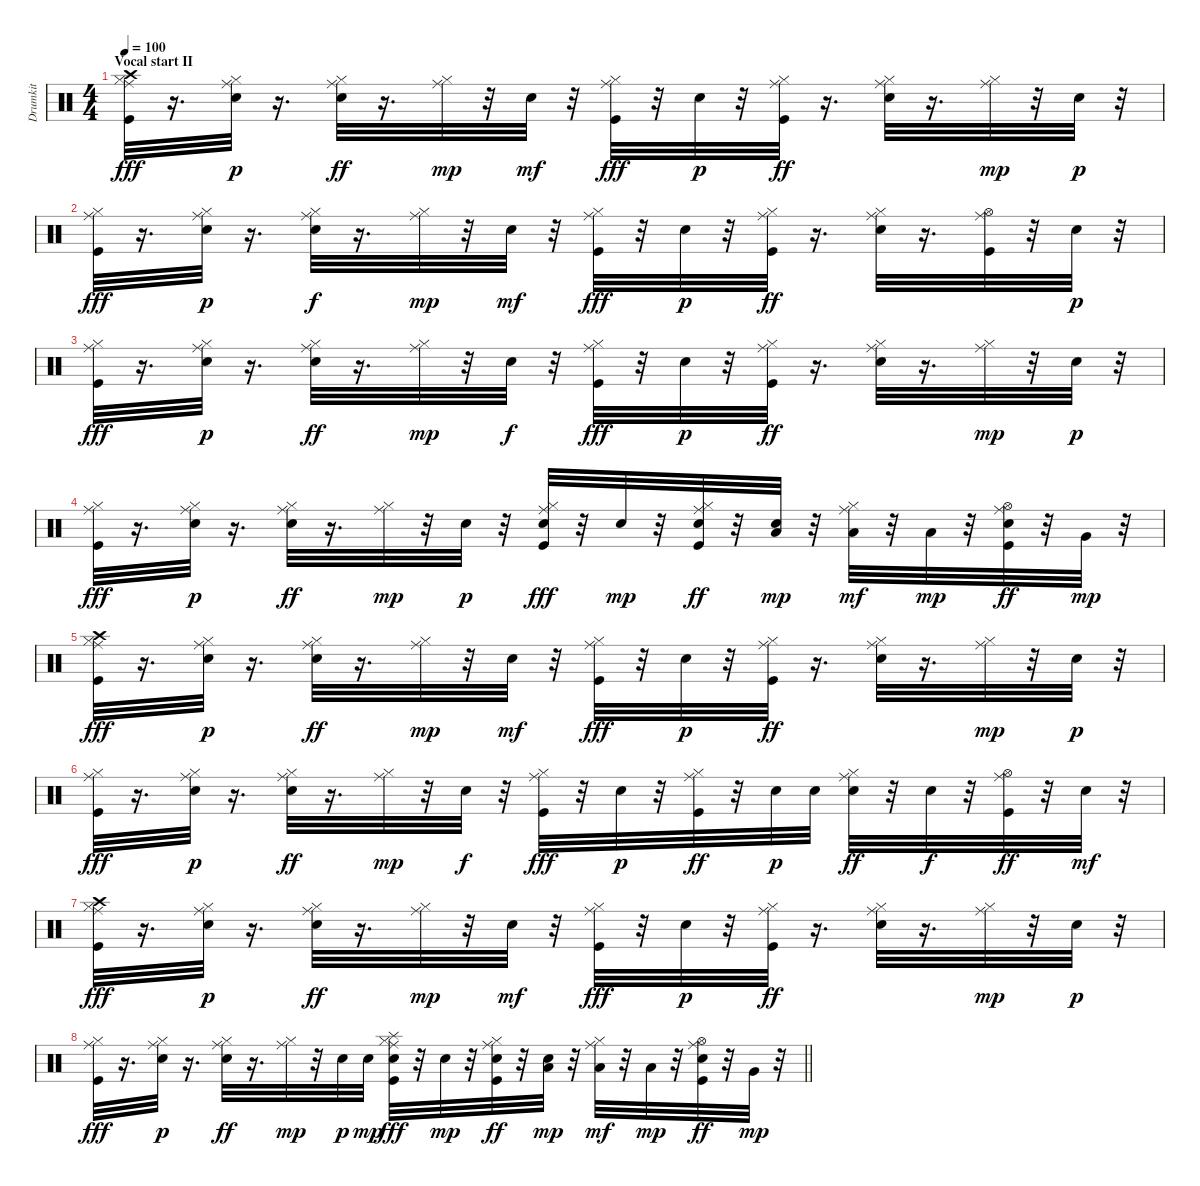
\track ("Drumkit" "Drumkit") {instrument percussion}
\staff {score}
\articulation defaults
\ts (4 4)
\section ("" "Vocal start II")
\tempo 100
\clef neutral
\ks c
("Kick (hit)" "Hi-Hat (closed)" "Crash high (hit)" "Ride (middle)").32{dy fff} r.16{d} ("Snare (hit) 2" "Hi-Hat (closed)" "Ride (middle)").32{dy p} r.16{d} ("Snare (hit) 2" "Hi-Hat (closed)" "Ride (middle)").32{dy ff} r.16{d} ("Hi-Hat (closed)" "Ride (middle)").32{dy mp} r.32 "Snare (hit) 2".32{dy mf} r.32 ("Kick (hit)" "Hi-Hat (closed)" "Ride (middle)").32{dy fff} r.32 "Snare (hit) 2".32{dy p} r.32 ("Kick (hit)" "Hi-Hat (closed)" "Ride (middle)").32{dy ff} r.16{d} ("Snare (hit) 2" "Hi-Hat (closed)" "Ride (middle)").32 r.16{d} ("Hi-Hat (closed)" "Ride (middle)").32{dy mp} r.32 "Snare (hit) 2".32{dy p} r.32 |
("Kick (hit)" "Hi-Hat (closed)" "Ride (middle)").32{dy fff} r.16{d} ("Snare (hit) 2" "Hi-Hat (closed)" "Ride (middle)").32{dy p} r.16{d} ("Snare (hit) 2" "Hi-Hat (closed)" "Ride (middle)").32{dy f} r.16{d} ("Hi-Hat (closed)" "Ride (middle)").32{dy mp} r.32 "Snare (hit) 2".32{dy mf} r.32 ("Kick (hit)" "Hi-Hat (closed)" "Ride (middle)").32{dy fff} r.32 "Snare (hit) 2".32{dy p} r.32 ("Kick (hit)" "Hi-Hat (closed)" "Ride (middle)").32{dy ff} r.16{d} ("Snare (hit) 2" "Hi-Hat (closed)" "Ride (middle)").32 r.16{d} ("Kick (hit)" "Hi-Hat (open)" "Ride (middle)").32 r.32 "Snare (hit) 2".32{dy p} r.32 |
("Kick (hit)" "Hi-Hat (closed)" "Ride (middle)").32{dy fff} r.16{d} ("Snare (hit) 2" "Hi-Hat (closed)" "Ride (middle)").32{dy p} r.16{d} ("Snare (hit) 2" "Hi-Hat (closed)" "Ride (middle)").32{dy ff} r.16{d} ("Hi-Hat (closed)" "Ride (middle)").32{dy mp} r.32 "Snare (hit) 2".32{dy f} r.32 ("Kick (hit)" "Hi-Hat (closed)" "Ride (middle)").32{dy fff} r.32 "Snare (hit) 2".32{dy p} r.32 ("Kick (hit)" "Hi-Hat (closed)" "Ride (middle)").32{dy ff} r.16{d} ("Snare (hit) 2" "Hi-Hat (closed)" "Ride (middle)").32 r.16{d} ("Hi-Hat (closed)" "Ride (middle)").32{dy mp} r.32 "Snare (hit) 2".32{dy p} r.32 |
("Kick (hit)" "Hi-Hat (closed)" "Ride (middle)").32{dy fff} r.16{d} ("Snare (hit) 2" "Hi-Hat (closed)" "Ride (middle)").32{dy p} r.16{d} ("Snare (hit) 2" "Hi-Hat (closed)" "Ride (middle)").32{dy ff} r.16{d} ("Hi-Hat (closed)" "Ride (middle)").32{dy mp} r.32 "Snare (hit) 2".32{dy p} r.32 ("Kick (hit)" "Snare (hit) 2" "Hi-Hat (closed)" "Ride (middle)").32{dy fff} r.32 "Snare (hit) 2".32{dy mp} r.32 ("Kick (hit)" "Snare (hit) 2" "Hi-Hat (closed)" "Ride (middle)").32{dy ff} r.32 ("Snare (hit) 2" "Low Tom (hit)").32{dy mp} r.32 ("Hi-Hat (closed)" "Low Tom (hit)" "Ride (middle)").32{dy mf} r.32 "Low Tom (hit)".32{dy mp} r.32 ("Kick (hit)" "Snare (hit) 2" "Hi-Hat (open)" "Ride (middle)").32{dy ff} r.32 "Very Low Tom (hit)".32{dy mp} r.32 |
("Kick (hit)" "Hi-Hat (closed)" "Crash high (hit)" "Ride (middle)").32{dy fff} r.16{d} ("Snare (hit) 2" "Hi-Hat (closed)" "Ride (middle)").32{dy p} r.16{d} ("Snare (hit) 2" "Hi-Hat (closed)" "Ride (middle)").32{dy ff} r.16{d} ("Hi-Hat (closed)" "Ride (middle)").32{dy mp} r.32 "Snare (hit) 2".32{dy mf} r.32 ("Kick (hit)" "Hi-Hat (closed)" "Ride (middle)").32{dy fff} r.32 "Snare (hit) 2".32{dy p} r.32 ("Kick (hit)" "Hi-Hat (closed)" "Ride (middle)").32{dy ff} r.16{d} ("Snare (hit) 2" "Hi-Hat (closed)" "Ride (middle)").32 r.16{d} ("Hi-Hat (closed)" "Ride (middle)").32{dy mp} r.32 "Snare (hit) 2".32{dy p} r.32 |
("Kick (hit)" "Hi-Hat (closed)" "Ride (middle)").32{dy fff} r.16{d} ("Snare (hit) 2" "Hi-Hat (closed)" "Ride (middle)").32{dy p} r.16{d} ("Snare (hit) 2" "Hi-Hat (closed)" "Ride (middle)").32{dy ff} r.16{d} ("Hi-Hat (closed)" "Ride (middle)").32{dy mp} r.32 "Snare (hit) 2".32{dy f} r.32 ("Kick (hit)" "Hi-Hat (closed)" "Ride (middle)").32{dy fff} r.32 "Snare (hit) 2".32{dy p} r.32 ("Kick (hit)" "Hi-Hat (closed)" "Ride (middle)").32{dy ff} r.32 "Snare (hit) 2".32{dy p} "Snare (hit) 2".32 ("Snare (hit) 2" "Hi-Hat (closed)" "Ride (middle)").32{dy ff} r.32 "Snare (hit) 2".32{dy f} r.32 ("Kick (hit)" "Hi-Hat (open)" "Ride (middle)").32{dy ff} r.32 "Snare (hit) 2".32{dy mf} r.32 |
("Kick (hit)" "Hi-Hat (closed)" "Crash high (hit)" "Ride (middle)").32{dy fff} r.16{d} ("Snare (hit) 2" "Hi-Hat (closed)" "Ride (middle)").32{dy p} r.16{d} ("Snare (hit) 2" "Hi-Hat (closed)" "Ride (middle)").32{dy ff} r.16{d} ("Hi-Hat (closed)" "Ride (middle)").32{dy mp} r.32 "Snare (hit) 2".32{dy mf} r.32 ("Kick (hit)" "Hi-Hat (closed)" "Ride (middle)").32{dy fff} r.32 "Snare (hit) 2".32{dy p} r.32 ("Kick (hit)" "Hi-Hat (closed)" "Ride (middle)").32{dy ff} r.16{d} ("Snare (hit) 2" "Hi-Hat (closed)" "Ride (middle)").32 r.16{d} ("Hi-Hat (closed)" "Ride (middle)").32{dy mp} r.32 "Snare (hit) 2".32{dy p} r.32 |
\barLineRight lightlight
("Kick (hit)" "Hi-Hat (closed)" "Ride (middle)").32{dy fff} r.16{d} ("Snare (hit) 2" "Hi-Hat (closed)" "Ride (middle)").32{dy p} r.16{d} ("Snare (hit) 2" "Hi-Hat (closed)" "Ride (middle)").32{dy ff} r.16{d} ("Hi-Hat (closed)" "Ride (middle)").32{dy mp} r.32 "Snare (hit) 2".32{dy p} "Snare (hit) 2".32{dy mp} ("Kick (hit)" "Snare (hit) 2" "Hi-Hat (closed)" "Ride (middle)" "Splash (hit)").32{dy fff} r.32 "Snare (hit) 2".32{dy mp} r.32 ("Kick (hit)" "Snare (hit) 2" "Hi-Hat (closed)" "Ride (middle)").32{dy ff} r.32 ("Snare (hit) 2" "Low Tom (hit)").32{dy mp} r.32 ("Hi-Hat (closed)" "Low Tom (hit)" "Ride (middle)").32{dy mf} r.32 "Low Tom (hit)".32{dy mp} r.32 ("Kick (hit)" "Snare (hit) 2" "Hi-Hat (open)" "Ride (middle)").32{dy ff} r.32 "Very Low Tom (hit)".32{dy mp} r.32
